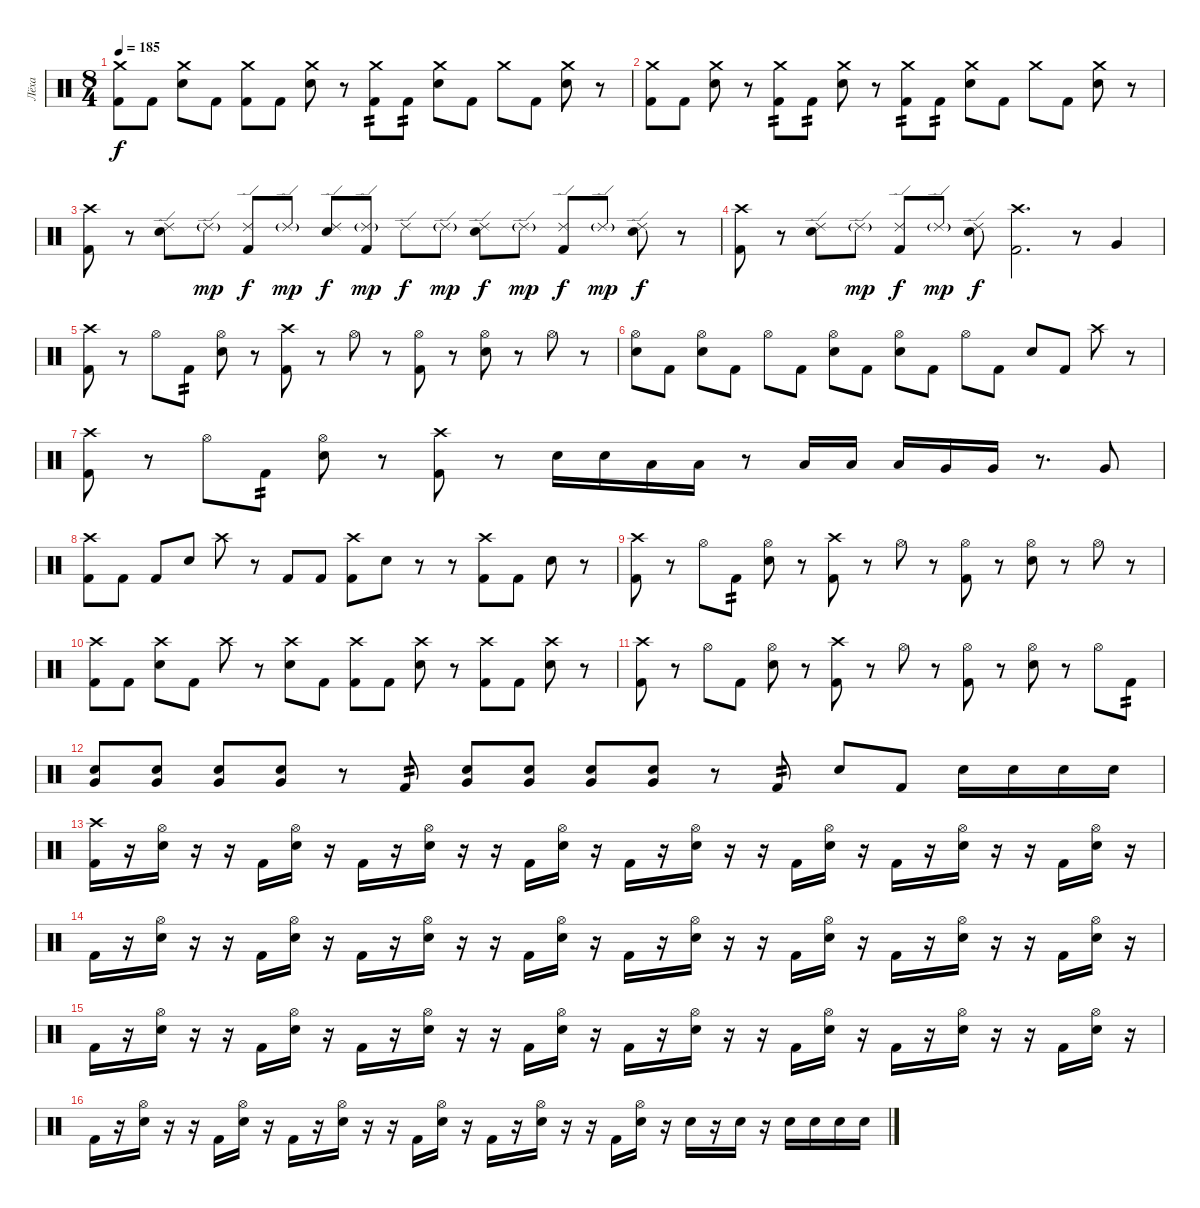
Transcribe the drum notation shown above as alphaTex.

\track ("Лёха" "Лёха") {instrument percussion}
\staff {score}
\articulation defaults
\ts (8 4)
\tempo 185
\clef neutral
\ks c
("Crash medium (hit)" "Kick (hit) 2").8{dy f} "Kick (hit) 2".8 ("Crash medium (hit)" "Electric Snare (hit)").8 "Kick (hit) 2".8 ("Crash medium (hit)" "Kick (hit) 2").8 "Kick (hit) 2".8 ("Crash medium (hit)" "Electric Snare (hit)").8 r.8 ("Crash medium (hit)" "Kick (hit) 2").8{tp 2} "Kick (hit) 2".8{tp 2} ("Crash medium (hit)" "Electric Snare (hit)").8 "Kick (hit) 2".8 "Crash medium (hit)".8 "Kick (hit) 2".8 ("Crash medium (hit)" "Electric Snare (hit)").8 r.8 |
("Crash medium (hit)" "Kick (hit) 2").8 "Kick (hit) 2".8 ("Crash medium (hit)" "Electric Snare (hit)").8 r.8 ("Crash medium (hit)" "Kick (hit) 2").8{tp 2} "Kick (hit) 2".8{tp 2} ("Crash medium (hit)" "Electric Snare (hit)").8 r.8 ("Crash medium (hit)" "Kick (hit) 2").8{tp 2} "Kick (hit) 2".8{tp 2} ("Crash medium (hit)" "Electric Snare (hit)").8 "Kick (hit) 2".8 "Crash medium (hit)".8 "Kick (hit) 2".8 ("Crash medium (hit)" "Electric Snare (hit)").8 r.8 |
("Crash high (hit)" "Kick (hit) 2").8 r.8 ("Ride (edge) 2" "Electric Snare (hit)").8 "Ride (edge) 2"{g}.8{dy mp} ("Ride (edge) 2" "Kick (hit) 2").8{dy f} "Ride (edge) 2"{g}.8{dy mp} ("Ride (edge) 2" "Electric Snare (hit)").8{dy f} ("Ride (edge) 2"{g} "Kick (hit) 2").8{dy mp} "Ride (edge) 2".8{dy f} "Ride (edge) 2"{g}.8{dy mp} ("Ride (edge) 2" "Electric Snare (hit)").8{dy f} "Ride (edge) 2"{g}.8{dy mp} ("Ride (edge) 2" "Kick (hit) 2").8{dy f} "Ride (edge) 2"{g}.8{dy mp} ("Ride (edge) 2" "Electric Snare (hit)").8{dy f} r.8 |
("Crash high (hit)" "Kick (hit) 2").8 r.8 ("Ride (edge) 2" "Electric Snare (hit)").8 "Ride (edge) 2"{g}.8{dy mp} ("Ride (edge) 2" "Kick (hit) 2").8{dy f} "Ride (edge) 2"{g}.8{dy mp} ("Ride (edge) 2" "Electric Snare (hit)").8{dy f} ("Crash high (hit)" "Kick (hit) 2").2{d} r.8 "Very Low Tom (hit)".4 |
("Crash high (hit)" "Kick (hit) 2").8 r.8 "Hi-Hat (open)".8 "Kick (hit) 2".8{tp 2} ("Hi-Hat (open)" "Electric Snare (hit)").8 r.8 ("Crash high (hit)" "Kick (hit) 2").8 r.8 "Hi-Hat (open)".8 r.8 ("Hi-Hat (open)" "Kick (hit) 2").8 r.8 ("Hi-Hat (open)" "Electric Snare (hit)").8 r.8 "Hi-Hat (open)".8 r.8 |
("Hi-Hat (open)" "Electric Snare (hit)").8 "Kick (hit) 2".8 ("Hi-Hat (open)" "Electric Snare (hit)").8 "Kick (hit) 2".8 "Hi-Hat (open)".8 "Kick (hit) 2".8 ("Hi-Hat (open)" "Electric Snare (hit)").8 "Kick (hit) 2".8 ("Hi-Hat (open)" "Electric Snare (hit)").8 "Kick (hit) 2".8 "Hi-Hat (open)".8 "Kick (hit) 2".8 "Electric Snare (hit)".8 "Kick (hit) 2".8 "Crash high (hit)".8 r.8 |
("Crash high (hit)" "Kick (hit) 2").8 r.8 "Hi-Hat (open)".8 "Kick (hit) 2".8{tp 2} ("Hi-Hat (open)" "Electric Snare (hit)").8 r.8 ("Crash high (hit)" "Kick (hit) 2").8 r.8 "Electric Snare (hit)".16 "Electric Snare (hit)".16 "Low Tom (hit)".16 "Low Tom (hit)".16 r.8 "Low Tom (hit)".16 "Low Tom (hit)".16 "Low Tom (hit)".16 "Very Low Tom (hit)".16 "Very Low Tom (hit)".16 r.8{d} "Very Low Tom (hit)".8 |
("Crash high (hit)" "Kick (hit) 2").8 "Kick (hit) 2".8 "Kick (hit) 2".8 "Electric Snare (hit)".8 "Crash high (hit)".8 r.8 "Kick (hit) 2".8 "Kick (hit) 2".8 ("Crash high (hit)" "Kick (hit) 2").8 "Electric Snare (hit)".8 r.8 r.8 ("Crash high (hit)" "Kick (hit) 2").8 "Kick (hit) 2".8 "Electric Snare (hit)".8 r.8 |
("Crash high (hit)" "Kick (hit) 2").8 r.8 "Hi-Hat (open)".8 "Kick (hit) 2".8{tp 2} ("Hi-Hat (open)" "Electric Snare (hit)").8 r.8 ("Crash high (hit)" "Kick (hit) 2").8 r.8 "Hi-Hat (open)".8 r.8 ("Hi-Hat (open)" "Kick (hit) 2").8 r.8 ("Hi-Hat (open)" "Electric Snare (hit)").8 r.8 "Hi-Hat (open)".8 r.8 |
("Crash high (hit)" "Kick (hit) 2").8 "Kick (hit) 2".8 ("Crash high (hit)" "Electric Snare (hit)").8 "Kick (hit) 2".8 "Crash high (hit)".8 r.8 ("Crash high (hit)" "Electric Snare (hit)").8 "Kick (hit) 2".8 ("Crash high (hit)" "Kick (hit) 2").8 "Kick (hit) 2".8 ("Crash high (hit)" "Electric Snare (hit)").8 r.8 ("Crash high (hit)" "Kick (hit) 2").8 "Kick (hit) 2".8 ("Crash high (hit)" "Electric Snare (hit)").8 r.8 |
("Crash high (hit)" "Kick (hit) 2").8 r.8 "Hi-Hat (open)".8 "Kick (hit) 2".8 ("Hi-Hat (open)" "Electric Snare (hit)").8 r.8 ("Crash high (hit)" "Kick (hit) 2").8 r.8 "Hi-Hat (open)".8 r.8 ("Hi-Hat (open)" "Kick (hit) 2").8 r.8 ("Hi-Hat (open)" "Electric Snare (hit)").8 r.8 "Hi-Hat (open)".8 "Kick (hit) 2".8{tp 2} |
("Electric Snare (hit)" "Very Low Tom (hit)").8 ("Electric Snare (hit)" "Very Low Tom (hit)").8 ("Electric Snare (hit)" "Very Low Tom (hit)").8 ("Electric Snare (hit)" "Very Low Tom (hit)").8 r.8 "Kick (hit) 2".8{tp 2} ("Electric Snare (hit)" "Very Low Tom (hit)").8 ("Electric Snare (hit)" "Very Low Tom (hit)").8 ("Electric Snare (hit)" "Very Low Tom (hit)").8 ("Electric Snare (hit)" "Very Low Tom (hit)").8 r.8 "Kick (hit) 2".8{tp 2} "Electric Snare (hit)".8 "Kick (hit) 2".8 "Electric Snare (hit)".16 "Electric Snare (hit)".16 "Electric Snare (hit)".16 "Electric Snare (hit)".16 |
("Crash high (hit)" "Kick (hit) 2").16 r.16 ("Hi-Hat (open)" "Electric Snare (hit)").16 r.16 r.16 "Kick (hit) 2".16 ("Hi-Hat (open)" "Electric Snare (hit)").16 r.16 "Kick (hit) 2".16 r.16 ("Hi-Hat (open)" "Electric Snare (hit)").16 r.16 r.16 "Kick (hit) 2".16 ("Hi-Hat (open)" "Electric Snare (hit)").16 r.16 "Kick (hit) 2".16 r.16 ("Hi-Hat (open)" "Electric Snare (hit)").16 r.16 r.16 "Kick (hit) 2".16 ("Hi-Hat (open)" "Electric Snare (hit)").16 r.16 "Kick (hit) 2".16 r.16 ("Hi-Hat (open)" "Electric Snare (hit)").16 r.16 r.16 "Kick (hit) 2".16 ("Hi-Hat (open)" "Electric Snare (hit)").16 r.16 |
"Kick (hit) 2".16 r.16 ("Hi-Hat (open)" "Electric Snare (hit)").16 r.16 r.16 "Kick (hit) 2".16 ("Hi-Hat (open)" "Electric Snare (hit)").16 r.16 "Kick (hit) 2".16 r.16 ("Hi-Hat (open)" "Electric Snare (hit)").16 r.16 r.16 "Kick (hit) 2".16 ("Hi-Hat (open)" "Electric Snare (hit)").16 r.16 "Kick (hit) 2".16 r.16 ("Hi-Hat (open)" "Electric Snare (hit)").16 r.16 r.16 "Kick (hit) 2".16 ("Hi-Hat (open)" "Electric Snare (hit)").16 r.16 "Kick (hit) 2".16 r.16 ("Hi-Hat (open)" "Electric Snare (hit)").16 r.16 r.16 "Kick (hit) 2".16 ("Hi-Hat (open)" "Electric Snare (hit)").16 r.16 |
"Kick (hit) 2".16 r.16 ("Hi-Hat (open)" "Electric Snare (hit)").16 r.16 r.16 "Kick (hit) 2".16 ("Hi-Hat (open)" "Electric Snare (hit)").16 r.16 "Kick (hit) 2".16 r.16 ("Hi-Hat (open)" "Electric Snare (hit)").16 r.16 r.16 "Kick (hit) 2".16 ("Hi-Hat (open)" "Electric Snare (hit)").16 r.16 "Kick (hit) 2".16 r.16 ("Hi-Hat (open)" "Electric Snare (hit)").16 r.16 r.16 "Kick (hit) 2".16 ("Hi-Hat (open)" "Electric Snare (hit)").16 r.16 "Kick (hit) 2".16 r.16 ("Hi-Hat (open)" "Electric Snare (hit)").16 r.16 r.16 "Kick (hit) 2".16 ("Hi-Hat (open)" "Electric Snare (hit)").16 r.16 |
"Kick (hit) 2".16 r.16 ("Hi-Hat (open)" "Electric Snare (hit)").16 r.16 r.16 "Kick (hit) 2".16 ("Hi-Hat (open)" "Electric Snare (hit)").16 r.16 "Kick (hit) 2".16 r.16 ("Hi-Hat (open)" "Electric Snare (hit)").16 r.16 r.16 "Kick (hit) 2".16 ("Hi-Hat (open)" "Electric Snare (hit)").16 r.16 "Kick (hit) 2".16 r.16 ("Hi-Hat (open)" "Electric Snare (hit)").16 r.16 r.16 "Kick (hit) 2".16 ("Hi-Hat (open)" "Electric Snare (hit)").16 r.16 "Electric Snare (hit)".16 r.16 "Electric Snare (hit)".16 r.16 "Electric Snare (hit)".16 "Electric Snare (hit)".16 "Electric Snare (hit)".16 "Electric Snare (hit)".16
